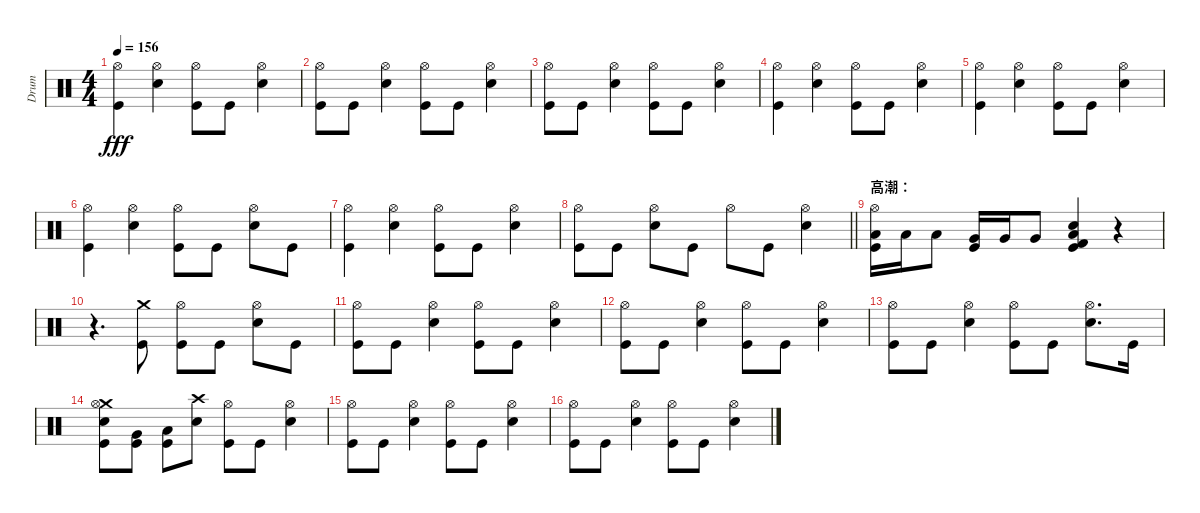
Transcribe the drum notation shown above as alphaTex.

\track ("Drum" "Drum") {instrument percussion}
\staff {score}
\articulation defaults
\ts (4 4)
\tempo 156
\clef neutral
\ks c
("Hi-Hat (open)" "Kick (hit)").4{dy fff} ("Metronome (bell)" "Hi-Hat (open)").4 ("Hi-Hat (open)" "Kick (hit)").8 "Kick (hit)".8 ("Hi-Hat (open)" "Metronome (bell)").4 |
("Kick (hit)" "Hi-Hat (open)").8 "Kick (hit)".8 ("Hi-Hat (open)" "Metronome (bell)").4 ("Kick (hit)" "Hi-Hat (open)").8 "Kick (hit)".8 ("Metronome (bell)" "Hi-Hat (open)").4 |
("Kick (hit)" "Hi-Hat (open)").8 "Kick (hit)".8 ("Hi-Hat (open)" "Metronome (bell)").4 ("Kick (hit)" "Hi-Hat (open)").8 "Kick (hit)".8 ("Metronome (bell)" "Hi-Hat (open)").4 |
("Hi-Hat (open)" "Kick (hit)").4 ("Hi-Hat (open)" "Metronome (bell)").4 ("Kick (hit)" "Hi-Hat (open)").8 "Kick (hit)".8 ("Hi-Hat (open)" "Metronome (bell)").4 |
("Kick (hit)" "Hi-Hat (open)").4 ("Metronome (bell)" "Hi-Hat (open)").4 ("Hi-Hat (open)" "Kick (hit)").8 "Kick (hit)".8 ("Hi-Hat (open)" "Metronome (bell)").4 |
("Kick (hit)" "Hi-Hat (open)").4 ("Metronome (bell)" "Hi-Hat (open)").4 ("Hi-Hat (open)" "Kick (hit)").8 "Kick (hit)".8 ("Metronome (bell)" "Hi-Hat (open)").8 "Kick (hit)".8 |
("Hi-Hat (open)" "Kick (hit)").4 ("Hi-Hat (open)" "Metronome (bell)").4 ("Kick (hit)" "Hi-Hat (open)").8 "Kick (hit)".8 ("Hi-Hat (open)" "Metronome (bell)").4 |
\barLineRight lightlight
("Kick (hit)" "Hi-Hat (open)").8 "Kick (hit)".8 ("Metronome (bell)" "Hi-Hat (open)").8 "Kick (hit)".8 "Hi-Hat (open)".8 "Kick (hit)".8 ("Hi-Hat (open)" "Metronome (bell)").4 |
\section ("" "高潮：")
("Low Tom (hit)" "Kick (hit)" "Hi-Hat (open)").16 "Low Tom (hit)".16 "Low Tom (hit)".8 ("Kick (hit)" "Very Low Tom (hit)").16 "Very Low Tom (hit)".16 "Very Low Tom (hit)".8 ("Metronome (bell)" "Kick (hit) 2" "Kick (hit)" "Low Floor Tom (hit)").4 r.4 |
r.4{d} ("Kick (hit)" "Crash medium (hit)").8 ("Kick (hit)" "Hi-Hat (open)").8 "Kick (hit)".8 ("Metronome (bell)" "Hi-Hat (open)").8 "Kick (hit)".8 |
("Hi-Hat (open)" "Kick (hit)").8 "Kick (hit)".8 ("Metronome (bell)" "Hi-Hat (open)").4 ("Kick (hit)" "Hi-Hat (open)").8 "Kick (hit)".8 ("Hi-Hat (open)" "Metronome (bell)").4 |
("Hi-Hat (open)" "Kick (hit)").8 "Kick (hit)".8 ("Hi-Hat (open)" "Metronome (bell)").4 ("Hi-Hat (open)" "Kick (hit)").8 "Kick (hit)".8 ("Hi-Hat (open)" "Metronome (bell)").4 |
("Hi-Hat (open)" "Kick (hit)").8 "Kick (hit)".8 ("Hi-Hat (open)" "Metronome (bell)").4 ("Hi-Hat (open)" "Kick (hit)").8 "Kick (hit)".8 ("Metronome (bell)" "Hi-Hat (open)").8{d} "Kick (hit)".16 |
("Crash medium (hit)" "Metronome (bell)" "Kick (hit)" "Hi-Hat (open)").8 ("Very Low Tom (hit)" "Kick (hit)").8 ("Low Floor Tom (hit)" "Kick (hit)").8 ("Metronome (bell)" "Crash high (hit)").8 ("Kick (hit)" "Hi-Hat (open)").8 "Kick (hit)".8 ("Hi-Hat (open)" "Metronome (bell)").4 |
("Hi-Hat (open)" "Kick (hit)").8 "Kick (hit)".8 ("Metronome (bell)" "Hi-Hat (open)").4 ("Kick (hit)" "Hi-Hat (open)").8 "Kick (hit)".8 ("Hi-Hat (open)" "Metronome (bell)").4 |
("Hi-Hat (open)" "Kick (hit)").8 "Kick (hit)".8 ("Hi-Hat (open)" "Metronome (bell)").4 ("Hi-Hat (open)" "Kick (hit)").8 "Kick (hit)".8 ("Hi-Hat (open)" "Metronome (bell)").4
